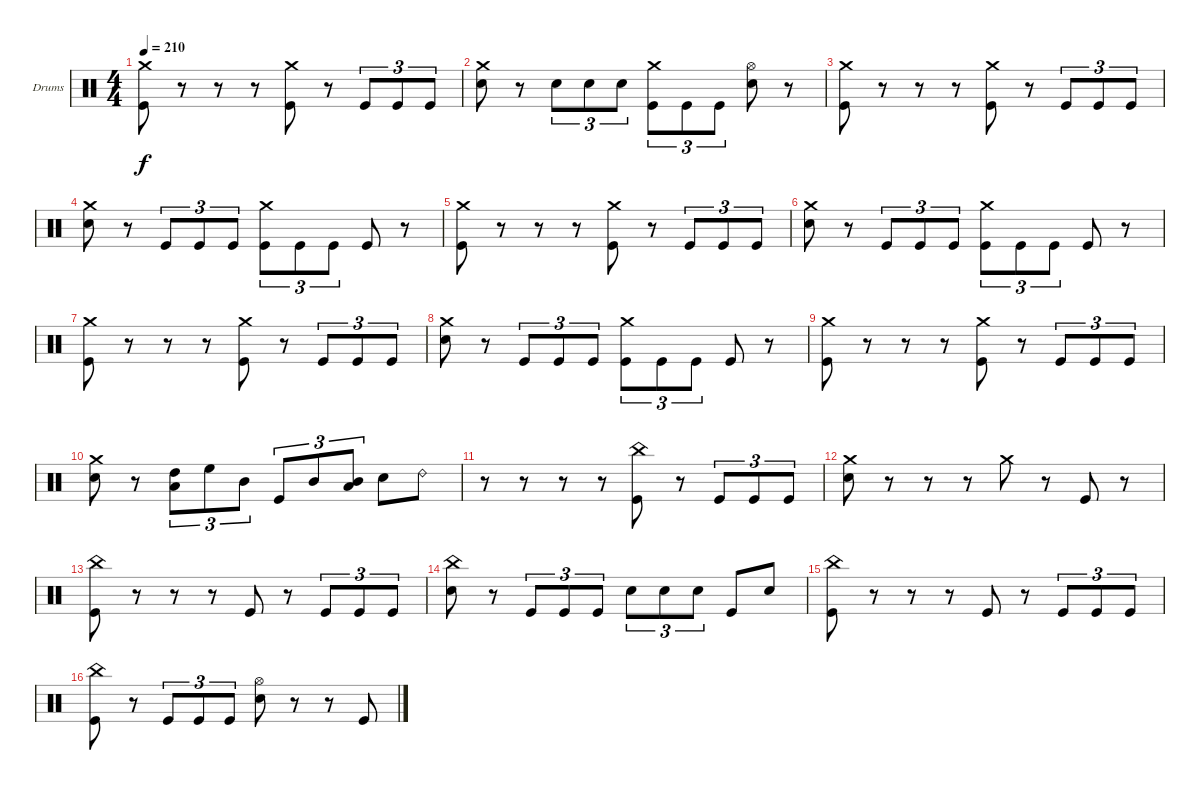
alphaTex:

\bracketExtendMode groupsimilarinstruments
\firstSystemTrackNameOrientation horizontal
\otherSystemsTrackNameOrientation horizontal
\track ("Drumkit" "Drums") {instrument percussion}
\staff {score}
\articulation defaults
\ts (4 4)
\tempo 210
\clef neutral
\ks c
("Crash medium (hit)" "Kick (hit)").8{dy f} r.8 r.8 r.8 ("Crash medium (hit)" "Kick (hit)").8 r.8 "Kick (hit)".8{tu (3 2)} "Kick (hit)".8{tu (3 2)} "Kick (hit)".8{tu (3 2)} |
("Crash medium (hit)" "Snare (hit) 2").8 r.8 "Snare (hit) 2".8{tu (3 2)} "Snare (hit) 2".8{tu (3 2)} "Snare (hit) 2".8{tu (3 2)} ("Crash medium (hit)" "Kick (hit)").8{tu (3 2)} "Kick (hit)".8{tu (3 2)} "Kick (hit)".8{tu (3 2)} ("Hi-Hat (open)" "Snare (hit) 2").8 r.8 |
("Crash medium (hit)" "Kick (hit)").8 r.8 r.8 r.8 ("Crash medium (hit)" "Kick (hit)").8 r.8 "Kick (hit)".8{tu (3 2)} "Kick (hit)".8{tu (3 2)} "Kick (hit)".8{tu (3 2)} |
("Crash medium (hit)" "Snare (hit) 2").8 r.8 "Kick (hit)".8{tu (3 2)} "Kick (hit)".8{tu (3 2)} "Kick (hit)".8{tu (3 2)} ("Crash medium (hit)" "Kick (hit)").8{tu (3 2)} "Kick (hit)".8{tu (3 2)} "Kick (hit)".8{tu (3 2)} "Kick (hit)".8 r.8 |
("Crash medium (hit)" "Kick (hit)").8 r.8 r.8 r.8 ("Crash medium (hit)" "Kick (hit)").8 r.8 "Kick (hit)".8{tu (3 2)} "Kick (hit)".8{tu (3 2)} "Kick (hit)".8{tu (3 2)} |
("Crash medium (hit)" "Snare (hit) 2").8 r.8 "Kick (hit)".8{tu (3 2)} "Kick (hit)".8{tu (3 2)} "Kick (hit)".8{tu (3 2)} ("Crash medium (hit)" "Kick (hit)").8{tu (3 2)} "Kick (hit)".8{tu (3 2)} "Kick (hit)".8{tu (3 2)} "Kick (hit)".8 r.8 |
("Crash medium (hit)" "Kick (hit)").8 r.8 r.8 r.8 ("Crash medium (hit)" "Kick (hit)").8 r.8 "Kick (hit)".8{tu (3 2)} "Kick (hit)".8{tu (3 2)} "Kick (hit)".8{tu (3 2)} |
("Crash medium (hit)" "Snare (hit) 2").8 r.8 "Kick (hit)".8{tu (3 2)} "Kick (hit)".8{tu (3 2)} "Kick (hit)".8{tu (3 2)} ("Crash medium (hit)" "Kick (hit)").8{tu (3 2)} "Kick (hit)".8{tu (3 2)} "Kick (hit)".8{tu (3 2)} "Kick (hit)".8 r.8 |
("Crash medium (hit)" "Kick (hit)").8 r.8 r.8 r.8 ("Crash medium (hit)" "Kick (hit)").8 r.8 "Kick (hit)".8{tu (3 2)} "Kick (hit)".8{tu (3 2)} "Kick (hit)".8{tu (3 2)} |
("Crash medium (hit)" "Snare (hit) 2").8 r.8 ("High Tom (hit)" "Low Tom (hit)").8{tu (3 2)} "High Floor Tom (hit)".8{tu (3 2)} "Mid Tom (hit)".8{tu (3 2)} "Kick (hit)".8{tu (3 2)} "Mid Tom (hit)".8{tu (3 2)} ("Mid Tom (hit)" "Low Tom (hit)").8{tu (3 2)} "Snare (hit) 2".8 "Ride (bell) 2".8 |
r.8 r.8 r.8 r.8 ("China (hit)" "Kick (hit)").8 r.8 "Kick (hit)".8{tu (3 2)} "Kick (hit)".8{tu (3 2)} "Kick (hit)".8{tu (3 2)} |
("Crash medium (hit)" "Snare (hit) 2").8 r.8 r.8 r.8 "Crash medium (hit)".8 r.8 "Kick (hit)".8 r.8 |
("China (hit)" "Kick (hit)").8 r.8 r.8 r.8 "Kick (hit)".8 r.8 "Kick (hit)".8{tu (3 2)} "Kick (hit)".8{tu (3 2)} "Kick (hit)".8{tu (3 2)} |
("China (hit)" "Snare (hit) 2").8 r.8 "Kick (hit)".8{tu (3 2)} "Kick (hit)".8{tu (3 2)} "Kick (hit)".8{tu (3 2)} "Snare (hit) 2".8{tu (3 2)} "Snare (hit) 2".8{tu (3 2)} "Snare (hit) 2".8{tu (3 2)} "Kick (hit)".8 "Snare (hit) 2".8 |
("China (hit)" "Kick (hit)").8 r.8 r.8 r.8 "Kick (hit)".8 r.8 "Kick (hit)".8{tu (3 2)} "Kick (hit)".8{tu (3 2)} "Kick (hit)".8{tu (3 2)} |
("China (hit)" "Kick (hit)").8 r.8 "Kick (hit)".8{tu (3 2)} "Kick (hit)".8{tu (3 2)} "Kick (hit)".8{tu (3 2)} ("Hi-Hat (open)" "Snare (hit) 2").8 r.8 r.8 "Kick (hit)".8
